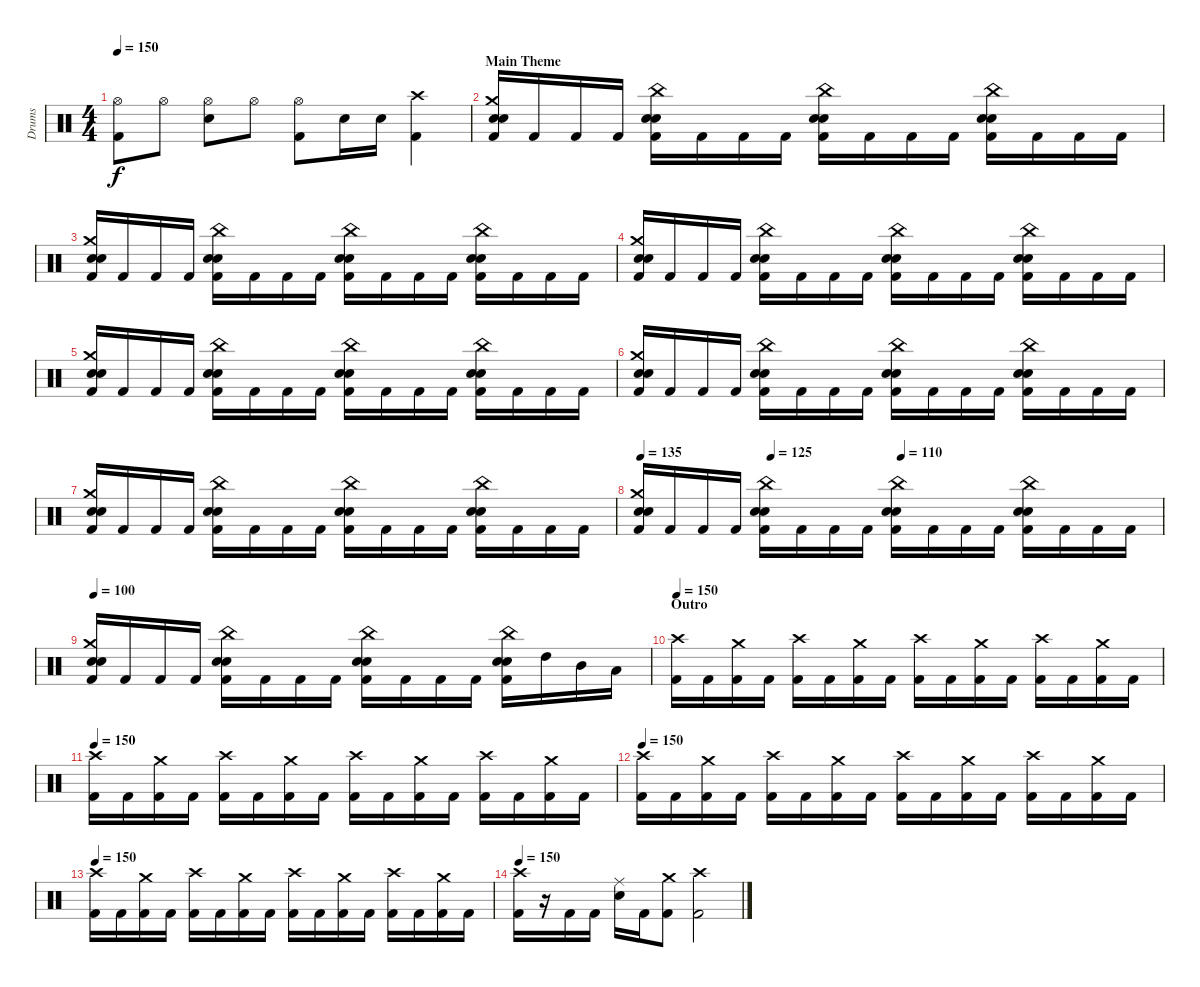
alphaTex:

\track ("Drums" "Drums") {instrument percussion}
\staff {score}
\articulation defaults
\ts (4 4)
\tempo 150
\clef neutral
\ks c
("Hi-Hat (open)" "Kick (hit) 2").8{dy f} "Hi-Hat (open)".8 ("Hi-Hat (open)" "Snare (hit) 2").8 "Hi-Hat (open)".8 ("Hi-Hat (open)" "Kick (hit) 2").8 "Snare (hit) 2".16 "Snare (hit) 2".16 ("Crash high (hit)" "Kick (hit) 2").4 |
\section ("" "Main Theme")
("Crash medium (hit)" "Kick (hit) 2" "Electric Snare (hit)" "Snare (hit) 2").16 "Kick (hit) 2".16 "Kick (hit) 2".16 "Kick (hit) 2".16 ("China (hit)" "Kick (hit) 2" "Electric Snare (hit)" "Snare (hit) 2").16 "Kick (hit) 2".16 "Kick (hit) 2".16 "Kick (hit) 2".16 ("China (hit)" "Kick (hit) 2" "Electric Snare (hit)" "Snare (hit) 2").16 "Kick (hit) 2".16 "Kick (hit) 2".16 "Kick (hit) 2".16 ("China (hit)" "Kick (hit) 2" "Electric Snare (hit)" "Snare (hit) 2").16 "Kick (hit) 2".16 "Kick (hit) 2".16 "Kick (hit) 2".16 |
("Crash medium (hit)" "Kick (hit) 2" "Electric Snare (hit)" "Snare (hit) 2").16 "Kick (hit) 2".16 "Kick (hit) 2".16 "Kick (hit) 2".16 ("China (hit)" "Kick (hit) 2" "Electric Snare (hit)" "Snare (hit) 2").16 "Kick (hit) 2".16 "Kick (hit) 2".16 "Kick (hit) 2".16 ("China (hit)" "Kick (hit) 2" "Electric Snare (hit)" "Snare (hit) 2").16 "Kick (hit) 2".16 "Kick (hit) 2".16 "Kick (hit) 2".16 ("China (hit)" "Kick (hit) 2" "Electric Snare (hit)" "Snare (hit) 2").16 "Kick (hit) 2".16 "Kick (hit) 2".16 "Kick (hit) 2".16 |
("Crash medium (hit)" "Kick (hit) 2" "Electric Snare (hit)" "Snare (hit) 2").16 "Kick (hit) 2".16 "Kick (hit) 2".16 "Kick (hit) 2".16 ("China (hit)" "Kick (hit) 2" "Electric Snare (hit)" "Snare (hit) 2").16 "Kick (hit) 2".16 "Kick (hit) 2".16 "Kick (hit) 2".16 ("China (hit)" "Kick (hit) 2" "Electric Snare (hit)" "Snare (hit) 2").16 "Kick (hit) 2".16 "Kick (hit) 2".16 "Kick (hit) 2".16 ("China (hit)" "Kick (hit) 2" "Electric Snare (hit)" "Snare (hit) 2").16 "Kick (hit) 2".16 "Kick (hit) 2".16 "Kick (hit) 2".16 |
("Crash medium (hit)" "Kick (hit) 2" "Electric Snare (hit)" "Snare (hit) 2").16 "Kick (hit) 2".16 "Kick (hit) 2".16 "Kick (hit) 2".16 ("China (hit)" "Kick (hit) 2" "Electric Snare (hit)" "Snare (hit) 2").16 "Kick (hit) 2".16 "Kick (hit) 2".16 "Kick (hit) 2".16 ("China (hit)" "Kick (hit) 2" "Electric Snare (hit)" "Snare (hit) 2").16 "Kick (hit) 2".16 "Kick (hit) 2".16 "Kick (hit) 2".16 ("China (hit)" "Kick (hit) 2" "Electric Snare (hit)" "Snare (hit) 2").16 "Kick (hit) 2".16 "Kick (hit) 2".16 "Kick (hit) 2".16 |
("Crash medium (hit)" "Kick (hit) 2" "Electric Snare (hit)" "Snare (hit) 2").16 "Kick (hit) 2".16 "Kick (hit) 2".16 "Kick (hit) 2".16 ("China (hit)" "Kick (hit) 2" "Electric Snare (hit)" "Snare (hit) 2").16 "Kick (hit) 2".16 "Kick (hit) 2".16 "Kick (hit) 2".16 ("China (hit)" "Kick (hit) 2" "Electric Snare (hit)" "Snare (hit) 2").16 "Kick (hit) 2".16 "Kick (hit) 2".16 "Kick (hit) 2".16 ("China (hit)" "Kick (hit) 2" "Electric Snare (hit)" "Snare (hit) 2").16 "Kick (hit) 2".16 "Kick (hit) 2".16 "Kick (hit) 2".16 |
("Crash medium (hit)" "Kick (hit) 2" "Electric Snare (hit)" "Snare (hit) 2").16 "Kick (hit) 2".16 "Kick (hit) 2".16 "Kick (hit) 2".16 ("China (hit)" "Kick (hit) 2" "Electric Snare (hit)" "Snare (hit) 2").16 "Kick (hit) 2".16 "Kick (hit) 2".16 "Kick (hit) 2".16 ("China (hit)" "Kick (hit) 2" "Electric Snare (hit)" "Snare (hit) 2").16 "Kick (hit) 2".16 "Kick (hit) 2".16 "Kick (hit) 2".16 ("China (hit)" "Kick (hit) 2" "Electric Snare (hit)" "Snare (hit) 2").16 "Kick (hit) 2".16 "Kick (hit) 2".16 "Kick (hit) 2".16 |
\tempo 135
\tempo (125 0.25)
\tempo (110 0.5)
("Crash medium (hit)" "Kick (hit) 2" "Electric Snare (hit)" "Snare (hit) 2").16 "Kick (hit) 2".16 "Kick (hit) 2".16 "Kick (hit) 2".16 ("China (hit)" "Kick (hit) 2" "Electric Snare (hit)" "Snare (hit) 2").16 "Kick (hit) 2".16 "Kick (hit) 2".16 "Kick (hit) 2".16 ("China (hit)" "Kick (hit) 2" "Electric Snare (hit)" "Snare (hit) 2").16 "Kick (hit) 2".16 "Kick (hit) 2".16 "Kick (hit) 2".16 ("China (hit)" "Kick (hit) 2" "Electric Snare (hit)" "Snare (hit) 2").16 "Kick (hit) 2".16 "Kick (hit) 2".16 "Kick (hit) 2".16 |
\tempo 100
("Crash medium (hit)" "Kick (hit) 2" "Electric Snare (hit)" "Snare (hit) 2").16 "Kick (hit) 2".16 "Kick (hit) 2".16 "Kick (hit) 2".16 ("China (hit)" "Kick (hit) 2" "Electric Snare (hit)" "Snare (hit) 2").16 "Kick (hit) 2".16 "Kick (hit) 2".16 "Kick (hit) 2".16 ("China (hit)" "Kick (hit) 2" "Electric Snare (hit)" "Snare (hit) 2").16 "Kick (hit) 2".16 "Kick (hit) 2".16 "Kick (hit) 2".16 ("China (hit)" "Kick (hit) 2" "Electric Snare (hit)" "Snare (hit) 2").16 "High Tom (hit)".16 "Mid Tom (hit)".16 "Low Tom (hit)".16 |
\section ("" "Outro")
\tempo 150
("Crash high (hit)" "Kick (hit) 2").16 "Kick (hit) 2".16 ("Crash medium (hit)" "Kick (hit) 2").16 "Kick (hit) 2".16 ("Crash high (hit)" "Kick (hit) 2").16 "Kick (hit) 2".16 ("Crash medium (hit)" "Kick (hit) 2").16 "Kick (hit) 2".16 ("Crash high (hit)" "Kick (hit) 2").16 "Kick (hit) 2".16 ("Crash medium (hit)" "Kick (hit) 2").16 "Kick (hit) 2".16 ("Crash high (hit)" "Kick (hit) 2").16 "Kick (hit) 2".16 ("Crash medium (hit)" "Kick (hit) 2").16 "Kick (hit) 2".16 |
\tempo 150
("Crash high (hit)" "Kick (hit) 2").16 "Kick (hit) 2".16 ("Crash medium (hit)" "Kick (hit) 2").16 "Kick (hit) 2".16 ("Crash high (hit)" "Kick (hit) 2").16 "Kick (hit) 2".16 ("Crash medium (hit)" "Kick (hit) 2").16 "Kick (hit) 2".16 ("Crash high (hit)" "Kick (hit) 2").16 "Kick (hit) 2".16 ("Crash medium (hit)" "Kick (hit) 2").16 "Kick (hit) 2".16 ("Crash high (hit)" "Kick (hit) 2").16 "Kick (hit) 2".16 ("Crash medium (hit)" "Kick (hit) 2").16 "Kick (hit) 2".16 |
\tempo 150
("Crash high (hit)" "Kick (hit) 2").16 "Kick (hit) 2".16 ("Crash medium (hit)" "Kick (hit) 2").16 "Kick (hit) 2".16 ("Crash high (hit)" "Kick (hit) 2").16 "Kick (hit) 2".16 ("Crash medium (hit)" "Kick (hit) 2").16 "Kick (hit) 2".16 ("Crash high (hit)" "Kick (hit) 2").16 "Kick (hit) 2".16 ("Crash medium (hit)" "Kick (hit) 2").16 "Kick (hit) 2".16 ("Crash high (hit)" "Kick (hit) 2").16 "Kick (hit) 2".16 ("Crash medium (hit)" "Kick (hit) 2").16 "Kick (hit) 2".16 |
\tempo 150
("Crash high (hit)" "Kick (hit) 2").16 "Kick (hit) 2".16 ("Crash medium (hit)" "Kick (hit) 2").16 "Kick (hit) 2".16 ("Crash high (hit)" "Kick (hit) 2").16 "Kick (hit) 2".16 ("Crash medium (hit)" "Kick (hit) 2").16 "Kick (hit) 2".16 ("Crash high (hit)" "Kick (hit) 2").16 "Kick (hit) 2".16 ("Crash medium (hit)" "Kick (hit) 2").16 "Kick (hit) 2".16 ("Crash high (hit)" "Kick (hit) 2").16 "Kick (hit) 2".16 ("Crash medium (hit)" "Kick (hit) 2").16 "Kick (hit) 2".16 |
\tempo 150
("Crash high (hit)" "Kick (hit) 2").16 r.16 "Kick (hit) 2".16 "Kick (hit) 2".16 ("Ride (middle)" "Electric Snare (hit)").16 "Kick (hit) 2".16 ("Crash medium (hit)" "Kick (hit) 2").8 ("Crash high (hit)" "Kick (hit) 2").2
